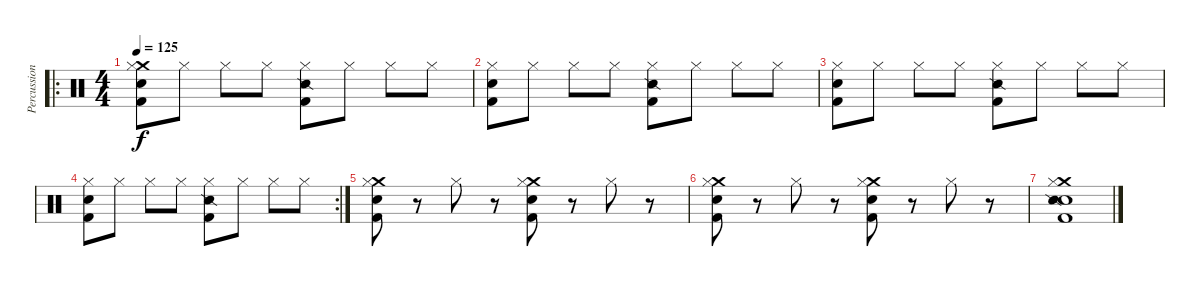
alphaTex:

\track ("Percussions" "Percussion") {instrument percussion}
\staff {score}
\articulation defaults
\ro
\ts (4 4)
\tempo 125
\clef neutral
\ks c
("Crash medium (hit)" "Snare (hit) 2" "Kick (hit) 2" "Hi-Hat (closed)").8{dy f} "Hi-Hat (closed)".8 "Hi-Hat (closed)".8 "Hi-Hat (closed)".8 ("Snare (side stick) 2" "Kick (hit) 2" "Hi-Hat (closed)").8 "Hi-Hat (closed)".8 "Hi-Hat (closed)".8 "Hi-Hat (closed)".8 |
("Snare (hit) 2" "Kick (hit) 2" "Hi-Hat (closed)").8 "Hi-Hat (closed)".8 "Hi-Hat (closed)".8 "Hi-Hat (closed)".8 ("Snare (side stick) 2" "Kick (hit) 2" "Hi-Hat (closed)").8 "Hi-Hat (closed)".8 "Hi-Hat (closed)".8 "Hi-Hat (closed)".8 |
("Snare (hit) 2" "Kick (hit) 2" "Hi-Hat (closed)").8 "Hi-Hat (closed)".8 "Hi-Hat (closed)".8 "Hi-Hat (closed)".8 ("Snare (side stick) 2" "Kick (hit) 2" "Hi-Hat (closed)").8 "Hi-Hat (closed)".8 "Hi-Hat (closed)".8 "Hi-Hat (closed)".8 |
\rc 2
("Snare (hit) 2" "Kick (hit) 2" "Hi-Hat (closed)").8 "Hi-Hat (closed)".8 "Hi-Hat (closed)".8 "Hi-Hat (closed)".8 ("Snare (side stick) 2" "Kick (hit) 2" "Hi-Hat (closed)").8 "Hi-Hat (closed)".8 "Hi-Hat (closed)".8 "Hi-Hat (closed)".8 |
("Crash medium (hit)" "Snare (hit) 2" "Kick (hit) 2" "Hi-Hat (closed)").8 r.8 "Hi-Hat (closed)".8 r.8 ("Crash medium (hit)" "Snare (hit) 2" "Kick (hit) 2" "Hi-Hat (closed)").8 r.8 "Hi-Hat (closed)".8 r.8 |
("Crash medium (hit)" "Snare (hit) 2" "Kick (hit) 2" "Hi-Hat (closed)").8 r.8 "Hi-Hat (closed)".8 r.8 ("Crash medium (hit)" "Snare (hit) 2" "Kick (hit) 2" "Hi-Hat (closed)").8 r.8 "Hi-Hat (closed)".8 r.8 |
("Crash medium (hit)" "Snare (hit) 2" "Kick (hit) 2" "Snare (side stick) 2" "Hi-Hat (closed)").1
